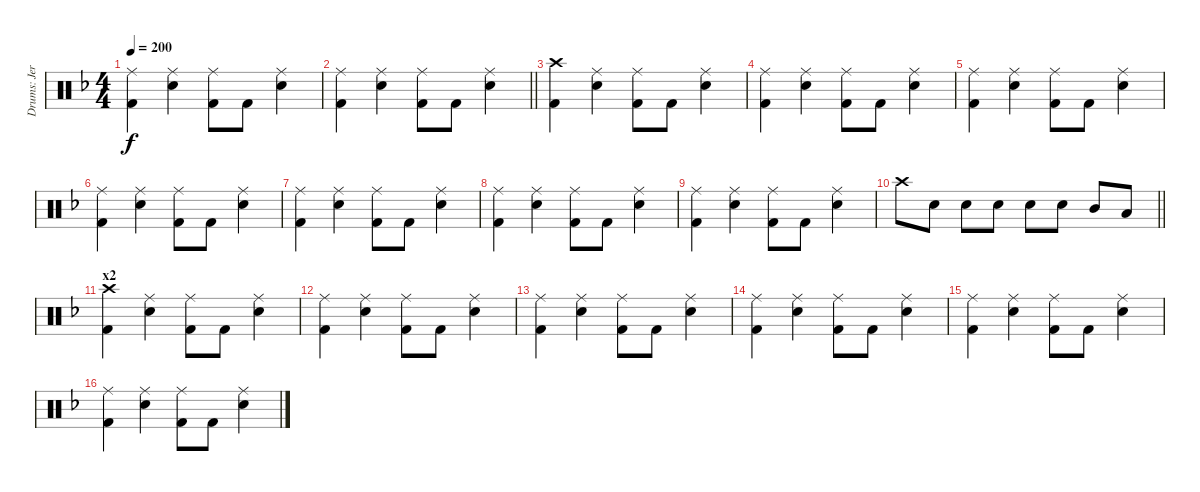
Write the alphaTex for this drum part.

\track ("Drums: Jere Luokkamäki" "Drums: Jer") {instrument percussion}
\staff {score}
\articulation defaults
\ts (4 4)
\tempo 200
\clef neutral
\ks dminor
("Ride (middle)" "Kick (hit) 2").4{dy f} ("Ride (middle)" "Electric Snare (hit)").4 ("Ride (middle)" "Kick (hit) 2").8 "Kick (hit) 2".8 ("Ride (middle)" "Electric Snare (hit)").4 |
\barLineRight lightlight
("Ride (middle)" "Kick (hit) 2").4 ("Ride (middle)" "Electric Snare (hit)").4 ("Ride (middle)" "Kick (hit) 2").8 "Kick (hit) 2".8 ("Ride (middle)" "Electric Snare (hit)").4 |
("Crash high (hit)" "Kick (hit) 2").4 ("Ride (middle)" "Electric Snare (hit)").4 ("Ride (middle)" "Kick (hit) 2").8 "Kick (hit) 2".8 ("Ride (middle)" "Electric Snare (hit)").4 |
("Ride (middle)" "Kick (hit) 2").4 ("Ride (middle)" "Electric Snare (hit)").4 ("Ride (middle)" "Kick (hit) 2").8 "Kick (hit) 2".8 ("Ride (middle)" "Electric Snare (hit)").4 |
("Ride (middle)" "Kick (hit) 2").4 ("Ride (middle)" "Electric Snare (hit)").4 ("Ride (middle)" "Kick (hit) 2").8 "Kick (hit) 2".8 ("Ride (middle)" "Electric Snare (hit)").4 |
("Ride (middle)" "Kick (hit) 2").4 ("Ride (middle)" "Electric Snare (hit)").4 ("Ride (middle)" "Kick (hit) 2").8 "Kick (hit) 2".8 ("Ride (middle)" "Electric Snare (hit)").4 |
("Ride (middle)" "Kick (hit) 2").4 ("Ride (middle)" "Electric Snare (hit)").4 ("Ride (middle)" "Kick (hit) 2").8 "Kick (hit) 2".8 ("Ride (middle)" "Electric Snare (hit)").4 |
("Ride (middle)" "Kick (hit) 2").4 ("Ride (middle)" "Electric Snare (hit)").4 ("Ride (middle)" "Kick (hit) 2").8 "Kick (hit) 2".8 ("Ride (middle)" "Electric Snare (hit)").4 |
("Ride (middle)" "Kick (hit) 2").4 ("Ride (middle)" "Electric Snare (hit)").4 ("Ride (middle)" "Kick (hit) 2").8 "Kick (hit) 2".8 ("Ride (middle)" "Electric Snare (hit)").4 |
\barLineRight lightlight "Crash high (hit)".8 "Electric Snare (hit)".8 "Electric Snare (hit)".8 "Electric Snare (hit)".8 "Electric Snare (hit)".8 "Electric Snare (hit)".8 "Mid Tom (hit)".8 "Low Tom (hit)".8
|
\section ("" "x2")
("Crash high (hit)" "Kick (hit) 2").4 ("Ride (middle)" "Electric Snare (hit)").4 ("Ride (middle)" "Kick (hit) 2").8 "Kick (hit) 2".8 ("Ride (middle)" "Electric Snare (hit)").4 |
("Ride (middle)" "Kick (hit) 2").4 ("Ride (middle)" "Electric Snare (hit)").4 ("Ride (middle)" "Kick (hit) 2").8 "Kick (hit) 2".8 ("Ride (middle)" "Electric Snare (hit)").4 |
("Ride (middle)" "Kick (hit) 2").4 ("Ride (middle)" "Electric Snare (hit)").4 ("Ride (middle)" "Kick (hit) 2").8 "Kick (hit) 2".8 ("Ride (middle)" "Electric Snare (hit)").4 |
("Ride (middle)" "Kick (hit) 2").4 ("Ride (middle)" "Electric Snare (hit)").4 ("Ride (middle)" "Kick (hit) 2").8 "Kick (hit) 2".8 ("Ride (middle)" "Electric Snare (hit)").4 |
("Ride (middle)" "Kick (hit) 2").4 ("Ride (middle)" "Electric Snare (hit)").4 ("Ride (middle)" "Kick (hit) 2").8 "Kick (hit) 2".8 ("Ride (middle)" "Electric Snare (hit)").4 |
("Ride (middle)" "Kick (hit) 2").4 ("Ride (middle)" "Electric Snare (hit)").4 ("Ride (middle)" "Kick (hit) 2").8 "Kick (hit) 2".8 ("Ride (middle)" "Electric Snare (hit)").4
